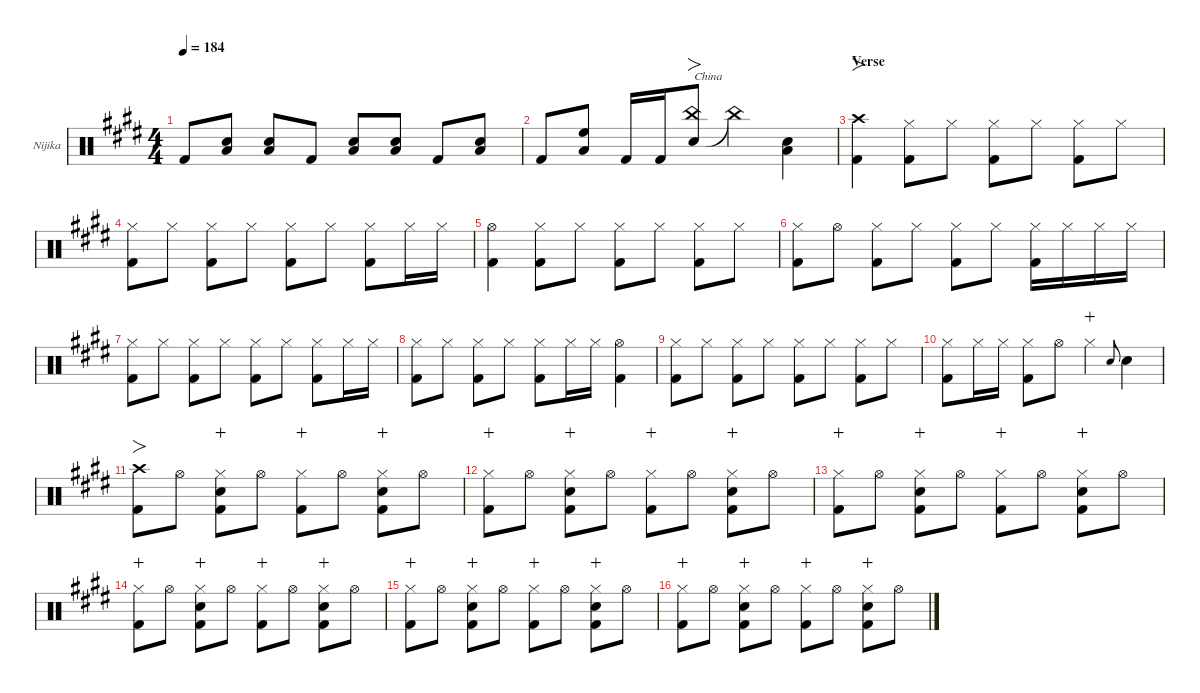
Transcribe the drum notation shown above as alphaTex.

\defaultSystemsLayout 4
\hideDynamics
\bracketExtendMode nobrackets
\firstSystemTrackNameOrientation horizontal
\track ("Nijika" "Nijika") {defaultSystemsLayout 4 instrument percussion}
\staff {score}
\articulation defaults
\ts (4 4)
\tempo 184
\clef neutral
\ks e "Kick (hit) 2"{acc forcenatural}.8{dy f beam Up}
("Snare (hit) 2"{acc forcenatural} "Low Tom (hit)"{acc forcenatural}).8{beam Up} ("Snare (hit) 2"{acc forcenatural} "Low Tom (hit)"{acc forcenatural}).8{beam Up} "Kick (hit) 2"{acc forcenatural}.8{beam Up} ("Snare (hit) 2"{acc forcenatural} "Low Tom (hit)"{acc forcenatural}).8{beam Up} ("Snare (hit) 2"{acc forcenatural} "Low Tom (hit)"{acc forcenatural}).8{beam Up} "Kick (hit) 2"{acc forcenatural}.8{beam Up} ("Snare (hit) 2"{acc forcenatural} "Low Tom (hit)"{acc forcenatural}).8{beam Up} |
"Kick (hit) 2"{acc forcenatural}.8{beam Up} ("High Floor Tom (hit)"{acc forcenatural} "Low Tom (hit)"{acc forcenatural}).8{beam Up} "Kick (hit) 2"{acc forcenatural}.16{beam Up} "Kick (hit) 2"{acc forcenatural}.16{beam Up} ("Snare (hit) 2"{acc forcenatural} "China (hit)"{acc forcenatural}).8{fo txt "China" beam Up} "China (hit)"{t acc forcenatural}.4{beam Down} ("Snare (hit) 2"{acc forcenatural} "Low Tom (hit)"{acc forcenatural}).4{beam Down} |
\section ("" "Verse")
("Crash high (hit)"{acc forcenatural} "Kick (hit) 2"{acc forcenatural}).4{fo beam Down} ("Hi-Hat (closed)"{acc forcenatural} "Kick (hit) 2"{acc forcenatural}).8{beam Down} "Hi-Hat (closed)"{acc forcenatural}.8{dy mf beam Down} ("Hi-Hat (closed)"{acc forcenatural} "Kick (hit) 2"{acc forcenatural}).8{dy f beam Down} "Hi-Hat (closed)"{acc forcenatural}.8{dy mf beam Down} ("Hi-Hat (closed)"{acc forcenatural} "Kick (hit) 2"{acc forcenatural}).8{dy f beam Down} "Hi-Hat (closed)"{acc forcenatural}.8{dy mf beam Down} |
("Hi-Hat (closed)"{acc forcenatural} "Kick (hit) 2"{acc forcenatural}).8{dy f beam Down} "Hi-Hat (closed)"{acc forcenatural}.8{dy mf beam Down} ("Hi-Hat (closed)"{acc forcenatural} "Kick (hit) 2"{acc forcenatural}).8{dy f beam Down} "Hi-Hat (closed)"{acc forcenatural}.8{dy mf beam Down} ("Hi-Hat (closed)"{acc forcenatural} "Kick (hit) 2"{acc forcenatural}).8{dy f beam Down} "Hi-Hat (closed)"{acc forcenatural}.8{dy mf beam Down beam split} ("Hi-Hat (closed)"{acc forcenatural} "Kick (hit) 2"{acc forcenatural}).8{dy f beam Down} "Hi-Hat (closed)"{acc forcenatural}.16{dy mf beam Down} "Hi-Hat (closed)"{acc forcenatural}.16{beam Down} |
("Hi-Hat (open)"{acc forcenatural} "Kick (hit) 2"{acc forcenatural}).4{dy f beam Down} ("Hi-Hat (closed)"{acc forcenatural} "Kick (hit) 2"{acc forcenatural}).8{beam Down} "Hi-Hat (closed)"{acc forcenatural}.8{dy mf beam Down} ("Hi-Hat (closed)"{acc forcenatural} "Kick (hit) 2"{acc forcenatural}).8{dy f beam Down} "Hi-Hat (closed)"{acc forcenatural}.8{dy mf beam Down} ("Hi-Hat (closed)"{acc forcenatural} "Kick (hit) 2"{acc forcenatural}).8{dy f beam Down} "Hi-Hat (closed)"{acc forcenatural}.8{dy mf beam Down} |
("Hi-Hat (closed)"{acc forcenatural} "Kick (hit) 2"{acc forcenatural}).8{dy f beam Down} "Hi-Hat (open)"{acc forcenatural}.8{beam Down} ("Hi-Hat (closed)"{acc forcenatural} "Kick (hit) 2"{acc forcenatural}).8{beam Down} "Hi-Hat (closed)"{acc forcenatural}.8{dy mf beam Down} ("Hi-Hat (closed)"{acc forcenatural} "Kick (hit) 2"{acc forcenatural}).8{dy f beam Down} "Hi-Hat (closed)"{acc forcenatural}.8{dy mf beam Down beam split} ("Hi-Hat (closed)"{acc forcenatural} "Kick (hit) 2"{acc forcenatural}).16{dy f beam Down} "Hi-Hat (closed)"{acc forcenatural}.16{dy mf beam Down} "Hi-Hat (closed)"{acc forcenatural}.16{dy f beam Down} "Hi-Hat (closed)"{acc forcenatural}.16{dy mf beam Down} |
("Hi-Hat (closed)"{acc forcenatural} "Kick (hit) 2"{acc forcenatural}).8{dy f beam Down} "Hi-Hat (closed)"{acc forcenatural}.8{dy mf beam Down} ("Hi-Hat (closed)"{acc forcenatural} "Kick (hit) 2"{acc forcenatural}).8{dy f beam Down} "Hi-Hat (closed)"{acc forcenatural}.8{dy mf beam Down} ("Hi-Hat (closed)"{acc forcenatural} "Kick (hit) 2"{acc forcenatural}).8{dy f beam Down} "Hi-Hat (closed)"{acc forcenatural}.8{dy mf beam Down beam split} ("Hi-Hat (closed)"{acc forcenatural} "Kick (hit) 2"{acc forcenatural}).8{dy f beam Down} "Hi-Hat (closed)"{acc forcenatural}.16{dy mf beam Down} "Hi-Hat (closed)"{acc forcenatural}.16{beam Down} |
("Hi-Hat (closed)"{acc forcenatural} "Kick (hit) 2"{acc forcenatural}).8{dy f beam Down} "Hi-Hat (closed)"{acc forcenatural}.8{dy mf beam Down} ("Hi-Hat (closed)"{acc forcenatural} "Kick (hit) 2"{acc forcenatural}).8{dy f beam Down} "Hi-Hat (closed)"{acc forcenatural}.8{dy mf beam Down} ("Hi-Hat (closed)"{acc forcenatural} "Kick (hit) 2"{acc forcenatural}).8{dy f beam Down} "Hi-Hat (closed)"{acc forcenatural}.16{dy mf beam Down} "Hi-Hat (closed)"{acc forcenatural}.16{beam Down} ("Hi-Hat (open)"{acc forcenatural} "Kick (hit) 2"{acc forcenatural}).4{dy f beam Down} |
("Hi-Hat (closed)"{acc forcenatural} "Kick (hit) 2"{acc forcenatural}).8{beam Down} "Hi-Hat (closed)"{acc forcenatural}.8{dy mf beam Down} ("Hi-Hat (closed)"{acc forcenatural} "Kick (hit) 2"{acc forcenatural}).8{dy f beam Down} "Hi-Hat (closed)"{acc forcenatural}.8{dy mf beam Down} ("Hi-Hat (closed)"{acc forcenatural} "Kick (hit) 2"{acc forcenatural}).8{dy f beam Down} "Hi-Hat (closed)"{acc forcenatural}.8{dy mf beam Down} ("Hi-Hat (closed)"{acc forcenatural} "Kick (hit) 2"{acc forcenatural}).8{dy f beam Down} "Hi-Hat (closed)"{acc forcenatural}.8{dy mf beam Down} |
("Hi-Hat (closed)"{acc forcenatural} "Kick (hit) 2"{acc forcenatural}).8{dy f beam Down} "Hi-Hat (closed)"{acc forcenatural}.16{dy mf beam Down} "Hi-Hat (closed)"{acc forcenatural}.16{beam Down beam split} ("Hi-Hat (closed)"{acc forcenatural} "Kick (hit) 2"{acc forcenatural}).8{dy f beam Down} "Hi-Hat (open)"{acc forcenatural}.8{beam Down} "Hi-Hat (closed)"{acc forcenatural}.4{dy mp wahc beam Down} "Snare (hit) 2"{acc forcenatural}.8{gr onbeat dy f beam Up} "Snare (hit) 2"{acc forcenatural}.4{dy mp beam Down} |
("Crash high (hit)"{acc forcenatural} "Kick (hit) 2"{acc forcenatural}).8{fo dy f beam Down} "Hi-Hat (open)"{acc forcenatural}.8{beam Down} ("Hi-Hat (closed)"{acc forcenatural} "Snare (hit) 2"{acc forcenatural} "Kick (hit) 2"{acc forcenatural}).8{wahc beam Down} "Hi-Hat (open)"{acc forcenatural}.8{beam Down} ("Hi-Hat (closed)"{acc forcenatural} "Kick (hit) 2"{acc forcenatural}).8{dy mp wahc beam Down} "Hi-Hat (open)"{acc forcenatural}.8{dy f beam Down} ("Hi-Hat (closed)"{acc forcenatural} "Snare (hit) 2"{acc forcenatural} "Kick (hit) 2"{acc forcenatural}).8{wahc beam Down} "Hi-Hat (open)"{acc forcenatural}.8{beam Down} |
("Hi-Hat (closed)"{acc forcenatural} "Kick (hit) 2"{acc forcenatural}).8{dy mp wahc beam Down} "Hi-Hat (open)"{acc forcenatural}.8{dy f beam Down} ("Hi-Hat (closed)"{acc forcenatural} "Snare (hit) 2"{acc forcenatural} "Kick (hit) 2"{acc forcenatural}).8{wahc beam Down} "Hi-Hat (open)"{acc forcenatural}.8{beam Down} ("Hi-Hat (closed)"{acc forcenatural} "Kick (hit) 2"{acc forcenatural}).8{dy mp wahc beam Down} "Hi-Hat (open)"{acc forcenatural}.8{dy f beam Down} ("Hi-Hat (closed)"{acc forcenatural} "Snare (hit) 2"{acc forcenatural} "Kick (hit) 2"{acc forcenatural}).8{wahc beam Down} "Hi-Hat (open)"{acc forcenatural}.8{beam Down} |
("Hi-Hat (closed)"{acc forcenatural} "Kick (hit) 2"{acc forcenatural}).8{dy mp wahc beam Down} "Hi-Hat (open)"{acc forcenatural}.8{dy f beam Down} ("Hi-Hat (closed)"{acc forcenatural} "Snare (hit) 2"{acc forcenatural} "Kick (hit) 2"{acc forcenatural}).8{wahc beam Down} "Hi-Hat (open)"{acc forcenatural}.8{beam Down} ("Hi-Hat (closed)"{acc forcenatural} "Kick (hit) 2"{acc forcenatural}).8{dy mp wahc beam Down} "Hi-Hat (open)"{acc forcenatural}.8{dy f beam Down} ("Hi-Hat (closed)"{acc forcenatural} "Snare (hit) 2"{acc forcenatural} "Kick (hit) 2"{acc forcenatural}).8{wahc beam Down} "Hi-Hat (open)"{acc forcenatural}.8{beam Down} |
("Hi-Hat (closed)"{acc forcenatural} "Kick (hit) 2"{acc forcenatural}).8{dy mp wahc beam Down} "Hi-Hat (open)"{acc forcenatural}.8{dy f beam Down} ("Hi-Hat (closed)"{acc forcenatural} "Snare (hit) 2"{acc forcenatural} "Kick (hit) 2"{acc forcenatural}).8{wahc beam Down} "Hi-Hat (open)"{acc forcenatural}.8{beam Down} ("Hi-Hat (closed)"{acc forcenatural} "Kick (hit) 2"{acc forcenatural}).8{dy mp wahc beam Down} "Hi-Hat (open)"{acc forcenatural}.8{dy f beam Down} ("Hi-Hat (closed)"{acc forcenatural} "Snare (hit) 2"{acc forcenatural} "Kick (hit) 2"{acc forcenatural}).8{wahc beam Down} "Hi-Hat (open)"{acc forcenatural}.8{beam Down} |
("Hi-Hat (closed)"{acc forcenatural} "Kick (hit) 2"{acc forcenatural}).8{dy mp wahc beam Down} "Hi-Hat (open)"{acc forcenatural}.8{dy f beam Down} ("Hi-Hat (closed)"{acc forcenatural} "Snare (hit) 2"{acc forcenatural} "Kick (hit) 2"{acc forcenatural}).8{wahc beam Down} "Hi-Hat (open)"{acc forcenatural}.8{beam Down} ("Hi-Hat (closed)"{acc forcenatural} "Kick (hit) 2"{acc forcenatural}).8{dy mp wahc beam Down} "Hi-Hat (open)"{acc forcenatural}.8{dy f beam Down} ("Hi-Hat (closed)"{acc forcenatural} "Snare (hit) 2"{acc forcenatural} "Kick (hit) 2"{acc forcenatural}).8{wahc beam Down} "Hi-Hat (open)"{acc forcenatural}.8{beam Down} |
("Hi-Hat (closed)"{acc forcenatural} "Kick (hit) 2"{acc forcenatural}).8{dy mp wahc beam Down} "Hi-Hat (open)"{acc forcenatural}.8{dy f beam Down} ("Hi-Hat (closed)"{acc forcenatural} "Snare (hit) 2"{acc forcenatural} "Kick (hit) 2"{acc forcenatural}).8{wahc beam Down} "Hi-Hat (open)"{acc forcenatural}.8{beam Down} ("Hi-Hat (closed)"{acc forcenatural} "Kick (hit) 2"{acc forcenatural}).8{dy mp wahc beam Down} "Hi-Hat (open)"{acc forcenatural}.8{dy f beam Down} ("Hi-Hat (closed)"{acc forcenatural} "Snare (hit) 2"{acc forcenatural} "Kick (hit) 2"{acc forcenatural}).8{wahc beam Down} "Hi-Hat (open)"{acc forcenatural}.8{beam Down}
